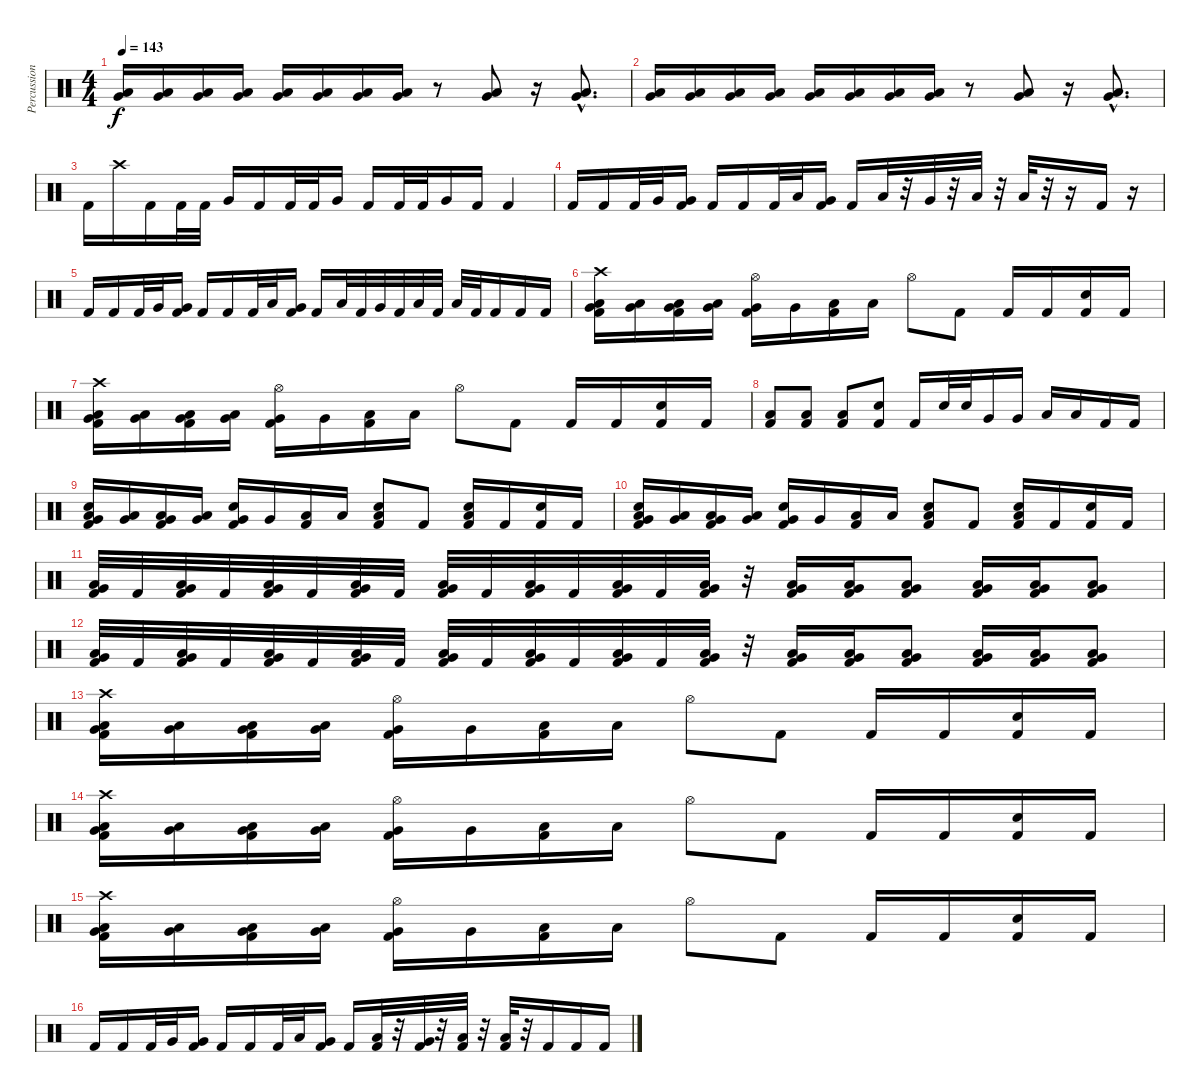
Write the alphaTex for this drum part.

\track ("Percussions" "Percussion") {instrument percussion}
\staff {score}
\articulation defaults
\ts (4 4)
\tempo 143
\clef neutral
\ks c
("Low Floor Tom (hit)" "Very Low Tom (hit)").16{dy f} ("Low Floor Tom (hit)" "Very Low Tom (hit)").16 ("Low Floor Tom (hit)" "Very Low Tom (hit)").16 ("Low Floor Tom (hit)" "Very Low Tom (hit)").16 ("Low Floor Tom (hit)" "Very Low Tom (hit)").16 ("Low Floor Tom (hit)" "Very Low Tom (hit)").16 ("Low Floor Tom (hit)" "Very Low Tom (hit)").16 ("Low Floor Tom (hit)" "Very Low Tom (hit)").16 r.8 ("Low Floor Tom (hit)" "Very Low Tom (hit)").8 r.16 ("Low Floor Tom (hit)"{hac} "Very Low Tom (hit)"{hac}).8{d} |
("Low Floor Tom (hit)" "Very Low Tom (hit)").16 ("Low Floor Tom (hit)" "Very Low Tom (hit)").16 ("Low Floor Tom (hit)" "Very Low Tom (hit)").16 ("Low Floor Tom (hit)" "Very Low Tom (hit)").16 ("Low Floor Tom (hit)" "Very Low Tom (hit)").16 ("Low Floor Tom (hit)" "Very Low Tom (hit)").16 ("Low Floor Tom (hit)" "Very Low Tom (hit)").16 ("Low Floor Tom (hit)" "Very Low Tom (hit)").16 r.8 ("Low Floor Tom (hit)" "Very Low Tom (hit)").8 r.16 ("Low Floor Tom (hit)"{hac} "Very Low Tom (hit)"{hac}).8{d} |
"Kick (hit) 2".16 "Crash high (hit)".16 "Kick (hit) 2".16 "Kick (hit) 2".32 "Kick (hit) 2".32 "Very Low Tom (hit)".16 "Kick (hit) 2".16 "Kick (hit) 2".32 "Kick (hit) 2".32 "Very Low Tom (hit)".16 "Kick (hit) 2".16 "Kick (hit) 2".32 "Kick (hit) 2".32 "Very Low Tom (hit)".16 "Kick (hit) 2".16 "Kick (hit) 2".4 |
"Kick (hit) 2".16 "Kick (hit) 2".16 "Kick (hit) 2".32 "Very Low Tom (hit)".32 ("Very Low Tom (hit)" "Kick (hit) 2").16 "Kick (hit) 2".16 "Kick (hit) 2".16 "Kick (hit) 2".32 "Low Floor Tom (hit)".32 ("Very Low Tom (hit)" "Kick (hit) 2").16 "Kick (hit) 2".16 "Low Floor Tom (hit)".32 r.32 "Very Low Tom (hit)".32 r.32 "Low Floor Tom (hit)".32 r.32 "Low Tom (hit)".32 r.32 r.16 "Kick (hit) 2".16 r.16 |
"Kick (hit) 2".16 "Kick (hit) 2".16 "Kick (hit) 2".32 "Very Low Tom (hit)".32 ("Very Low Tom (hit)" "Kick (hit) 2").16 "Kick (hit) 2".16 "Kick (hit) 2".16 "Kick (hit) 2".32 "Low Floor Tom (hit)".32 ("Very Low Tom (hit)" "Kick (hit) 2").16 "Kick (hit) 2".16 "Low Floor Tom (hit)".32 "Kick (hit) 2".32 "Very Low Tom (hit)".32 "Kick (hit) 2".32 "Low Floor Tom (hit)".32 "Kick (hit) 2".32 "Low Tom (hit)".32 "Kick (hit) 2".32 "Kick (hit) 2".16 "Kick (hit) 2".16 "Kick (hit) 2".16 |
("Crash high (hit)" "Very Low Tom (hit)" "Low Floor Tom (hit)" "Kick (hit) 2").16 ("Very Low Tom (hit)" "Low Floor Tom (hit)").16 ("Very Low Tom (hit)" "Low Floor Tom (hit)" "Kick (hit) 2").16 ("Very Low Tom (hit)" "Low Floor Tom (hit)").16 ("Hi-Hat (open)" "Very Low Tom (hit)" "Kick (hit) 2").16 "Very Low Tom (hit)".16 ("Low Floor Tom (hit)" "Kick (hit) 2").16 "Low Floor Tom (hit)".16 "Hi-Hat (open)".8 "Kick (hit) 2".8 "Kick (hit) 2".16 "Kick (hit) 2".16 ("Snare (hit) 2" "Kick (hit) 2").16 "Kick (hit) 2".16 |
("Crash high (hit)" "Very Low Tom (hit)" "Low Floor Tom (hit)" "Kick (hit) 2").16 ("Very Low Tom (hit)" "Low Floor Tom (hit)").16 ("Very Low Tom (hit)" "Low Floor Tom (hit)" "Kick (hit) 2").16 ("Very Low Tom (hit)" "Low Floor Tom (hit)").16 ("Hi-Hat (open)" "Very Low Tom (hit)" "Kick (hit) 2").16 "Very Low Tom (hit)".16 ("Low Floor Tom (hit)" "Kick (hit) 2").16 "Low Floor Tom (hit)".16 "Hi-Hat (open)".8 "Kick (hit) 2".8 "Kick (hit) 2".16 "Kick (hit) 2".16 ("Snare (hit) 2" "Kick (hit) 2").16 "Kick (hit) 2".16 |
("Kick (hit) 2" "Low Floor Tom (hit)").8 ("Kick (hit) 2" "Low Tom (hit)").8 ("Kick (hit) 2" "Low Floor Tom (hit)").8 ("Kick (hit) 2" "Snare (hit) 2").8 "Kick (hit) 2".16 "Snare (hit) 2".32 "Snare (hit) 2".32 "Very Low Tom (hit)".16 "Very Low Tom (hit)".16 "Low Floor Tom (hit)".16 "Low Floor Tom (hit)".16 "Kick (hit) 2".16 "Kick (hit) 2".16 |
("Snare (hit) 2" "Very Low Tom (hit)" "Low Floor Tom (hit)" "Kick (hit) 2").16 ("Very Low Tom (hit)" "Low Floor Tom (hit)").16 ("Very Low Tom (hit)" "Low Floor Tom (hit)" "Kick (hit) 2").16 ("Very Low Tom (hit)" "Low Floor Tom (hit)").16 ("Snare (hit) 2" "Very Low Tom (hit)" "Kick (hit) 2").16 "Very Low Tom (hit)".16 ("Low Floor Tom (hit)" "Kick (hit) 2").16 "Low Floor Tom (hit)".16 ("Snare (hit) 2" "Low Floor Tom (hit)" "Kick (hit) 2").8 "Kick (hit) 2".8 ("Snare (hit) 2" "Low Floor Tom (hit)" "Kick (hit) 2").16 "Kick (hit) 2".16 ("Snare (hit) 2" "Kick (hit) 2").16 "Kick (hit) 2".16 |
("Snare (hit) 2" "Very Low Tom (hit)" "Low Floor Tom (hit)" "Kick (hit) 2").16 ("Very Low Tom (hit)" "Low Floor Tom (hit)").16 ("Very Low Tom (hit)" "Low Floor Tom (hit)" "Kick (hit) 2").16 ("Very Low Tom (hit)" "Low Floor Tom (hit)").16 ("Snare (hit) 2" "Very Low Tom (hit)" "Kick (hit) 2").16 "Very Low Tom (hit)".16 ("Low Floor Tom (hit)" "Kick (hit) 2").16 "Low Floor Tom (hit)".16 ("Snare (hit) 2" "Low Floor Tom (hit)" "Kick (hit) 2").8 "Kick (hit) 2".8 ("Snare (hit) 2" "Low Floor Tom (hit)" "Kick (hit) 2").16 "Kick (hit) 2".16 ("Snare (hit) 2" "Kick (hit) 2").16 "Kick (hit) 2".16 |
("Low Floor Tom (hit)" "Very Low Tom (hit)" "Kick (hit) 2").32 "Kick (hit) 2".32 ("Low Floor Tom (hit)" "Very Low Tom (hit)" "Kick (hit) 2").32 "Kick (hit) 2".32 ("Low Floor Tom (hit)" "Very Low Tom (hit)" "Kick (hit) 2").32 "Kick (hit) 2".32 ("Low Floor Tom (hit)" "Very Low Tom (hit)" "Kick (hit) 2").32 "Kick (hit) 2".32 ("Low Floor Tom (hit)" "Very Low Tom (hit)" "Kick (hit) 2").32 "Kick (hit) 2".32 ("Low Floor Tom (hit)" "Very Low Tom (hit)" "Kick (hit) 2").32 "Kick (hit) 2".32 ("Low Floor Tom (hit)" "Very Low Tom (hit)" "Kick (hit) 2").32 "Kick (hit) 2".32 ("Low Floor Tom (hit)" "Very Low Tom (hit)" "Kick (hit) 2").32 r.32 ("Very Low Tom (hit)" "Low Floor Tom (hit)" "Kick (hit) 2").16 ("Very Low Tom (hit)" "Low Floor Tom (hit)" "Kick (hit) 2").16 ("Very Low Tom (hit)" "Low Floor Tom (hit)" "Kick (hit) 2").8 ("Very Low Tom (hit)" "Low Floor Tom (hit)" "Kick (hit) 2").16 ("Very Low Tom (hit)" "Low Floor Tom (hit)" "Kick (hit) 2").16 ("Very Low Tom (hit)" "Low Floor Tom (hit)" "Kick (hit) 2").8 |
("Low Floor Tom (hit)" "Very Low Tom (hit)" "Kick (hit) 2").32 "Kick (hit) 2".32 ("Low Floor Tom (hit)" "Very Low Tom (hit)" "Kick (hit) 2").32 "Kick (hit) 2".32 ("Low Floor Tom (hit)" "Very Low Tom (hit)" "Kick (hit) 2").32 "Kick (hit) 2".32 ("Low Floor Tom (hit)" "Very Low Tom (hit)" "Kick (hit) 2").32 "Kick (hit) 2".32 ("Low Floor Tom (hit)" "Very Low Tom (hit)" "Kick (hit) 2").32 "Kick (hit) 2".32 ("Low Floor Tom (hit)" "Very Low Tom (hit)" "Kick (hit) 2").32 "Kick (hit) 2".32 ("Low Floor Tom (hit)" "Very Low Tom (hit)" "Kick (hit) 2").32 "Kick (hit) 2".32 ("Low Floor Tom (hit)" "Very Low Tom (hit)" "Kick (hit) 2").32 r.32 ("Very Low Tom (hit)" "Low Floor Tom (hit)" "Kick (hit) 2").16 ("Very Low Tom (hit)" "Low Floor Tom (hit)" "Kick (hit) 2").16 ("Very Low Tom (hit)" "Low Floor Tom (hit)" "Kick (hit) 2").8 ("Very Low Tom (hit)" "Low Floor Tom (hit)" "Kick (hit) 2").16 ("Very Low Tom (hit)" "Low Floor Tom (hit)" "Kick (hit) 2").16 ("Very Low Tom (hit)" "Low Floor Tom (hit)" "Kick (hit) 2").8 |
("Crash high (hit)" "Very Low Tom (hit)" "Low Floor Tom (hit)" "Kick (hit) 2").16 ("Very Low Tom (hit)" "Low Floor Tom (hit)").16 ("Very Low Tom (hit)" "Low Floor Tom (hit)" "Kick (hit) 2").16 ("Very Low Tom (hit)" "Low Floor Tom (hit)").16 ("Hi-Hat (open)" "Very Low Tom (hit)" "Kick (hit) 2").16 "Very Low Tom (hit)".16 ("Low Floor Tom (hit)" "Kick (hit) 2").16 "Low Floor Tom (hit)".16 "Hi-Hat (open)".8 "Kick (hit) 2".8 "Kick (hit) 2".16 "Kick (hit) 2".16 ("Snare (hit) 2" "Kick (hit) 2").16 "Kick (hit) 2".16 |
("Crash high (hit)" "Very Low Tom (hit)" "Low Floor Tom (hit)" "Kick (hit) 2").16 ("Very Low Tom (hit)" "Low Floor Tom (hit)").16 ("Very Low Tom (hit)" "Low Floor Tom (hit)" "Kick (hit) 2").16 ("Very Low Tom (hit)" "Low Floor Tom (hit)").16 ("Hi-Hat (open)" "Very Low Tom (hit)" "Kick (hit) 2").16 "Very Low Tom (hit)".16 ("Low Floor Tom (hit)" "Kick (hit) 2").16 "Low Floor Tom (hit)".16 "Hi-Hat (open)".8 "Kick (hit) 2".8 "Kick (hit) 2".16 "Kick (hit) 2".16 ("Snare (hit) 2" "Kick (hit) 2").16 "Kick (hit) 2".16 |
("Crash high (hit)" "Very Low Tom (hit)" "Low Floor Tom (hit)" "Kick (hit) 2").16 ("Very Low Tom (hit)" "Low Floor Tom (hit)").16 ("Very Low Tom (hit)" "Low Floor Tom (hit)" "Kick (hit) 2").16 ("Very Low Tom (hit)" "Low Floor Tom (hit)").16 ("Hi-Hat (open)" "Very Low Tom (hit)" "Kick (hit) 2").16 "Very Low Tom (hit)".16 ("Low Floor Tom (hit)" "Kick (hit) 2").16 "Low Floor Tom (hit)".16 "Hi-Hat (open)".8 "Kick (hit) 2".8 "Kick (hit) 2".16 "Kick (hit) 2".16 ("Snare (hit) 2" "Kick (hit) 2").16 "Kick (hit) 2".16 |
"Kick (hit) 2".16 "Kick (hit) 2".16 "Kick (hit) 2".32 "Very Low Tom (hit)".32 ("Very Low Tom (hit)" "Kick (hit) 2").16 "Kick (hit) 2".16 "Kick (hit) 2".16 "Kick (hit) 2".32 "Low Floor Tom (hit)".32 ("Very Low Tom (hit)" "Kick (hit) 2").16 "Kick (hit) 2".16 ("Kick (hit) 2" "Low Floor Tom (hit)").32 r.32 ("Kick (hit) 2" "Very Low Tom (hit)").32 r.32 ("Kick (hit) 2" "Low Floor Tom (hit)").32 r.32 ("Kick (hit) 2" "Low Tom (hit)").32 r.32 "Kick (hit) 2".16 "Kick (hit) 2".16 "Kick (hit) 2".16
